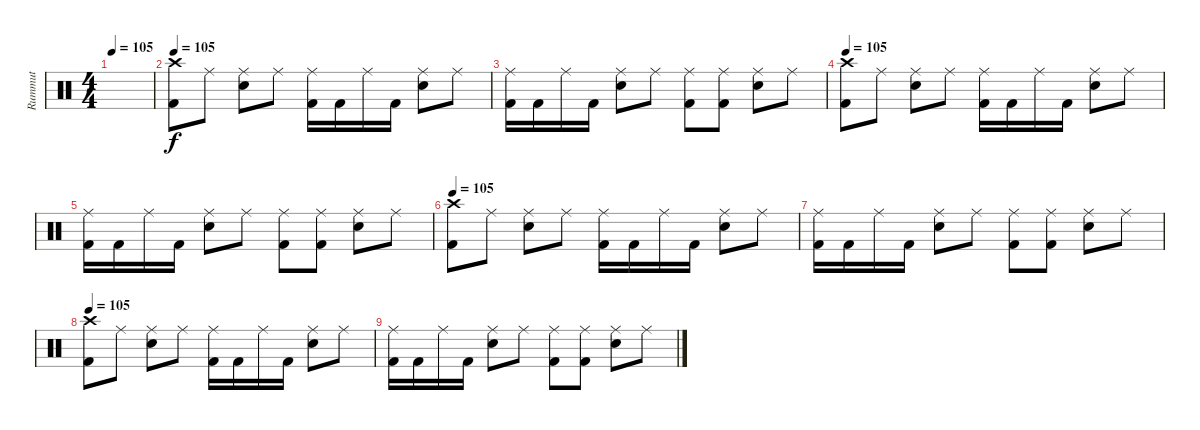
\track ("Rummut" "Rummut") {instrument percussion}
\staff {score}
\articulation defaults
\ts (4 4)
\tempo 105
\clef neutral
\ks c
|
\tempo 105
("Crash high (hit)" "Kick (hit) 2").8 "Ride (middle)".8 ("Ride (middle)" "Snare (hit) 2").8 "Ride (middle)".8 ("Ride (middle)" "Kick (hit) 2").16 "Kick (hit) 2".16 "Ride (middle)".16 "Kick (hit) 2".16 ("Ride (middle)" "Snare (hit) 2").8 "Ride (middle)".8 |
("Ride (middle)" "Kick (hit) 2").16 "Kick (hit) 2".16 "Ride (middle)".16 "Kick (hit) 2".16 ("Ride (middle)" "Snare (hit) 2").8 "Ride (middle)".8 ("Ride (middle)" "Kick (hit) 2").8 ("Ride (middle)" "Kick (hit) 2").8 ("Ride (middle)" "Snare (hit) 2").8 "Ride (middle)".8 |
\tempo 105
("Crash high (hit)" "Kick (hit) 2").8 "Ride (middle)".8 ("Ride (middle)" "Snare (hit) 2").8 "Ride (middle)".8 ("Ride (middle)" "Kick (hit) 2").16 "Kick (hit) 2".16 "Ride (middle)".16 "Kick (hit) 2".16 ("Ride (middle)" "Snare (hit) 2").8 "Ride (middle)".8 |
("Ride (middle)" "Kick (hit) 2").16 "Kick (hit) 2".16 "Ride (middle)".16 "Kick (hit) 2".16 ("Ride (middle)" "Snare (hit) 2").8 "Ride (middle)".8 ("Ride (middle)" "Kick (hit) 2").8 ("Ride (middle)" "Kick (hit) 2").8 ("Ride (middle)" "Snare (hit) 2").8 "Ride (middle)".8 |
\tempo 105
("Crash high (hit)" "Kick (hit) 2").8 "Ride (middle)".8 ("Ride (middle)" "Snare (hit) 2").8 "Ride (middle)".8 ("Ride (middle)" "Kick (hit) 2").16 "Kick (hit) 2".16 "Ride (middle)".16 "Kick (hit) 2".16 ("Ride (middle)" "Snare (hit) 2").8 "Ride (middle)".8 |
("Ride (middle)" "Kick (hit) 2").16 "Kick (hit) 2".16 "Ride (middle)".16 "Kick (hit) 2".16 ("Ride (middle)" "Snare (hit) 2").8 "Ride (middle)".8 ("Ride (middle)" "Kick (hit) 2").8 ("Ride (middle)" "Kick (hit) 2").8 ("Ride (middle)" "Snare (hit) 2").8 "Ride (middle)".8 |
\tempo 105
("Crash high (hit)" "Kick (hit) 2").8 "Ride (middle)".8 ("Ride (middle)" "Snare (hit) 2").8 "Ride (middle)".8 ("Ride (middle)" "Kick (hit) 2").16 "Kick (hit) 2".16 "Ride (middle)".16 "Kick (hit) 2".16 ("Ride (middle)" "Snare (hit) 2").8 "Ride (middle)".8 |
("Ride (middle)" "Kick (hit) 2").16 "Kick (hit) 2".16 "Ride (middle)".16 "Kick (hit) 2".16 ("Ride (middle)" "Snare (hit) 2").8 "Ride (middle)".8 ("Ride (middle)" "Kick (hit) 2").8 ("Ride (middle)" "Kick (hit) 2").8 ("Ride (middle)" "Snare (hit) 2").8 "Ride (middle)".8
